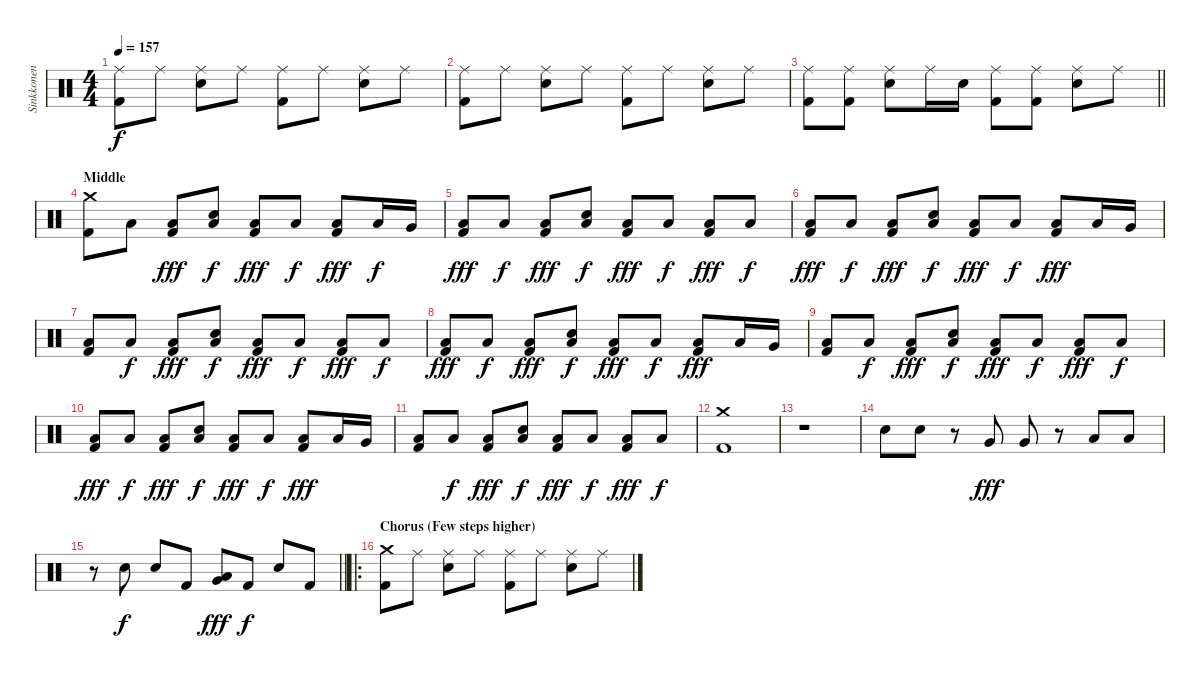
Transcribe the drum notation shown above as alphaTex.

\track ("Sinkkonen" "Sinkkonen") {instrument percussion}
\staff {score}
\articulation defaults
\ts (4 4)
\tempo 157
\clef neutral
\ks c
("Kick (hit) 2" "Ride (middle)").8{dy f} "Ride (middle)".8 ("Ride (middle)" "Snare (hit) 2").8 "Ride (middle)".8 ("Kick (hit) 2" "Ride (middle)").8 "Ride (middle)".8 ("Ride (middle)" "Snare (hit) 2").8 "Ride (middle)".8 |
("Kick (hit) 2" "Ride (middle)").8 "Ride (middle)".8 ("Ride (middle)" "Snare (hit) 2").8 "Ride (middle)".8 ("Kick (hit) 2" "Ride (middle)").8 "Ride (middle)".8 ("Ride (middle)" "Snare (hit) 2").8 "Ride (middle)".8 |
\barLineRight lightlight
("Kick (hit) 2" "Ride (middle)").8 ("Kick (hit) 2" "Ride (middle)").8 ("Ride (middle)" "Snare (hit) 2").8 "Ride (middle)".16 "Snare (hit) 2".16 ("Kick (hit) 2" "Ride (middle)").8 ("Kick (hit) 2" "Ride (middle)").8 ("Ride (middle)" "Snare (hit) 2").8 "Ride (middle)".8 |
\section ("" "Middle")
("Kick (hit) 2" "Crash medium (hit)").8 "Low Floor Tom (hit)".8 ("Kick (hit) 2" "Low Floor Tom (hit)").8{dy fff} ("Low Floor Tom (hit)" "Snare (hit) 2").8{dy f} ("Kick (hit) 2" "Low Floor Tom (hit)").8{dy fff} "Low Floor Tom (hit)".8{dy f} ("Kick (hit) 2" "Low Floor Tom (hit)").8{dy fff} "Low Tom (hit)".16{dy f} "Very Low Tom (hit)".16 |
("Kick (hit) 2" "Low Floor Tom (hit)").8{dy fff} "Low Floor Tom (hit)".8{dy f} ("Kick (hit) 2" "Low Floor Tom (hit)").8{dy fff} ("Low Floor Tom (hit)" "Snare (hit) 2").8{dy f} ("Kick (hit) 2" "Low Floor Tom (hit)").8{dy fff} "Low Floor Tom (hit)".8{dy f} ("Kick (hit) 2" "Low Floor Tom (hit)").8{dy fff} "Low Floor Tom (hit)".8{dy f} |
("Kick (hit) 2" "Low Floor Tom (hit)").8{dy fff} "Low Floor Tom (hit)".8{dy f} ("Kick (hit) 2" "Low Floor Tom (hit)").8{dy fff} ("Low Floor Tom (hit)" "Snare (hit) 2").8{dy f} ("Kick (hit) 2" "Low Floor Tom (hit)").8{dy fff} "Low Floor Tom (hit)".8{dy f} ("Kick (hit) 2" "Low Floor Tom (hit)").8{dy fff} "Low Tom (hit)".16 "Very Low Tom (hit)".16 |
("Kick (hit) 2" "Low Floor Tom (hit)").8 "Low Floor Tom (hit)".8{dy f} ("Kick (hit) 2" "Low Floor Tom (hit)").8{dy fff} ("Low Floor Tom (hit)" "Snare (hit) 2").8{dy f} ("Kick (hit) 2" "Low Floor Tom (hit)").8{dy fff} "Low Floor Tom (hit)".8{dy f} ("Kick (hit) 2" "Low Floor Tom (hit)").8{dy fff} "Low Floor Tom (hit)".8{dy f} |
("Kick (hit) 2" "Low Floor Tom (hit)").8{dy fff} "Low Floor Tom (hit)".8{dy f} ("Kick (hit) 2" "Low Floor Tom (hit)").8{dy fff} ("Low Floor Tom (hit)" "Snare (hit) 2").8{dy f} ("Kick (hit) 2" "Low Floor Tom (hit)").8{dy fff} "Low Floor Tom (hit)".8{dy f} ("Kick (hit) 2" "Low Floor Tom (hit)").8{dy fff} "Low Tom (hit)".16 "Very Low Tom (hit)".16 |
("Kick (hit) 2" "Low Floor Tom (hit)").8 "Low Floor Tom (hit)".8{dy f} ("Kick (hit) 2" "Low Floor Tom (hit)").8{dy fff} ("Low Floor Tom (hit)" "Snare (hit) 2").8{dy f} ("Kick (hit) 2" "Low Floor Tom (hit)").8{dy fff} "Low Floor Tom (hit)".8{dy f} ("Kick (hit) 2" "Low Floor Tom (hit)").8{dy fff} "Low Floor Tom (hit)".8{dy f} |
("Kick (hit) 2" "Low Floor Tom (hit)").8{dy fff} "Low Floor Tom (hit)".8{dy f} ("Kick (hit) 2" "Low Floor Tom (hit)").8{dy fff} ("Low Floor Tom (hit)" "Snare (hit) 2").8{dy f} ("Kick (hit) 2" "Low Floor Tom (hit)").8{dy fff} "Low Floor Tom (hit)".8{dy f} ("Kick (hit) 2" "Low Floor Tom (hit)").8{dy fff} "Low Tom (hit)".16 "Very Low Tom (hit)".16 |
("Kick (hit) 2" "Low Floor Tom (hit)").8 "Low Floor Tom (hit)".8{dy f} ("Kick (hit) 2" "Low Floor Tom (hit)").8{dy fff} ("Low Floor Tom (hit)" "Snare (hit) 2").8{dy f} ("Kick (hit) 2" "Low Floor Tom (hit)").8{dy fff} "Low Floor Tom (hit)".8{dy f} ("Kick (hit) 2" "Low Floor Tom (hit)").8{dy fff} "Low Floor Tom (hit)".8{dy f} |
("Kick (hit) 2" "Crash medium (hit)").1 |
r.1 |
"Snare (hit) 2".8 "Snare (hit) 2".8 r.8 "Very Low Tom (hit)".8{dy fff} "Very Low Tom (hit)".8 r.8 "Low Floor Tom (hit)".8 "Low Floor Tom (hit)".8 |
\barLineRight lightlight
r.8 "Snare (hit) 2".8{dy f} "Snare (hit) 2".8 "Kick (hit) 2".8 ("Low Floor Tom (hit)" "Very Low Tom (hit)").8{dy fff} "Kick (hit) 2".8{dy f} "Snare (hit) 2".8 "Kick (hit) 2".8 |
\ro
\section ("" "Chorus (Few steps higher)")
("Kick (hit) 2" "Crash medium (hit)").8 "Ride (middle)".8 ("Ride (middle)" "Snare (hit) 2").8 "Ride (middle)".8 ("Kick (hit) 2" "Ride (middle)").8 "Ride (middle)".8 ("Ride (middle)" "Snare (hit) 2").8 "Ride (middle)".8
